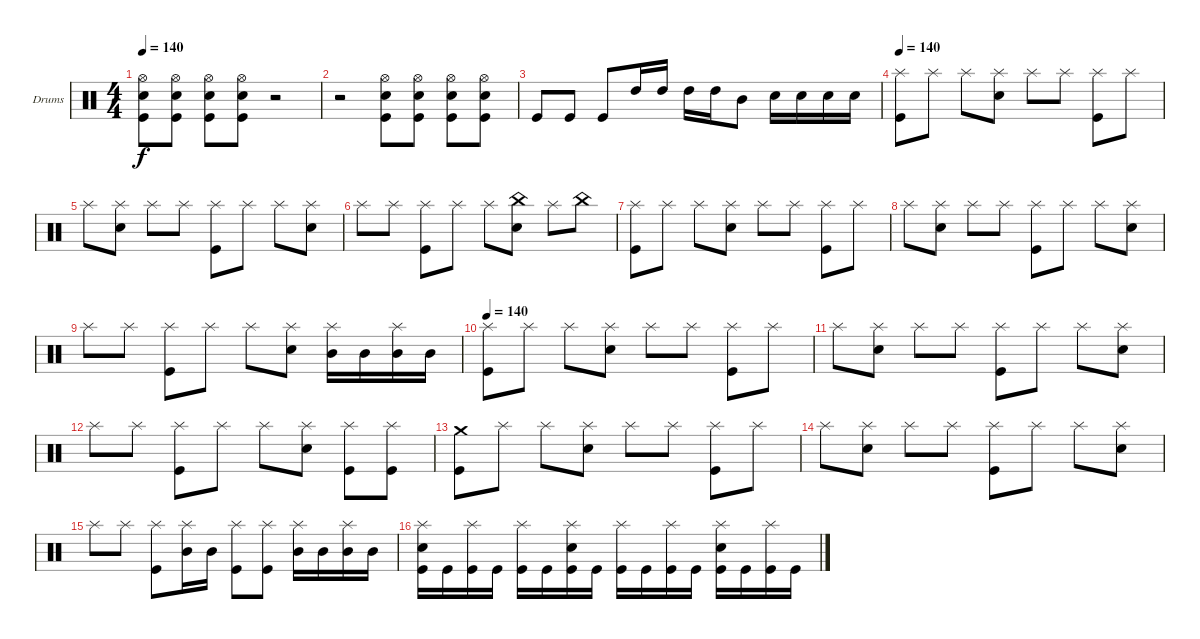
\bracketExtendMode groupsimilarinstruments
\firstSystemTrackNameOrientation horizontal
\otherSystemsTrackNameOrientation horizontal
\track ("Drumkit" "Drums") {instrument percussion}
\staff {score}
\articulation defaults
\ts (4 4)
\tempo 140
\clef neutral
\ks c
("Kick (hit)" "Snare (hit) 2" "Hi-Hat (open)").8{dy f} ("Kick (hit)" "Snare (hit) 2" "Hi-Hat (open)").8 ("Kick (hit)" "Snare (hit) 2" "Hi-Hat (open)").8 ("Kick (hit)" "Snare (hit) 2" "Hi-Hat (open)").8 r.2 |
r.2 ("Kick (hit)" "Snare (hit) 2" "Hi-Hat (open)").8 ("Kick (hit)" "Snare (hit) 2" "Hi-Hat (open)").8 ("Kick (hit)" "Snare (hit) 2" "Hi-Hat (open)").8 ("Kick (hit)" "Snare (hit) 2" "Hi-Hat (open)").8 |
"Kick (hit)".8 "Kick (hit)".8 "Kick (hit)".8 "High Tom (hit)".16 "High Tom (hit)".16 "High Tom (hit)".16 "High Tom (hit)".16 "Mid Tom (hit)".8 "Snare (hit) 2".16 "Snare (hit) 2".16 "Snare (hit) 2".16 "Snare (hit) 2".16 |
\tempo 140
("Kick (hit)" "Splash (hit)").8 "Splash (hit)".8 "Splash (hit)".8 ("Snare (hit) 2" "Splash (hit)").8 "Splash (hit)".8 "Splash (hit)".8 ("Kick (hit)" "Splash (hit)").8 "Splash (hit)".8 |
"Splash (hit)".8 ("Snare (hit) 2" "Splash (hit)").8 "Splash (hit)".8 "Splash (hit)".8 ("Kick (hit)" "Splash (hit)").8 "Splash (hit)".8 "Splash (hit)".8 ("Snare (hit) 2" "Splash (hit)").8 |
"Splash (hit)".8 "Splash (hit)".8 ("Kick (hit)" "Splash (hit)").8 "Splash (hit)".8 "Splash (hit)".8 ("Snare (hit) 2" "China (hit)").8 "Splash (hit)".8 "China (hit)".8 |
("Kick (hit)" "Splash (hit)").8 "Splash (hit)".8 "Splash (hit)".8 ("Snare (hit) 2" "Splash (hit)").8 "Splash (hit)".8 "Splash (hit)".8 ("Kick (hit)" "Splash (hit)").8 "Splash (hit)".8 |
"Splash (hit)".8 ("Snare (hit) 2" "Splash (hit)").8 "Splash (hit)".8 "Splash (hit)".8 ("Kick (hit)" "Splash (hit)").8 "Splash (hit)".8 "Splash (hit)".8 ("Snare (hit) 2" "Splash (hit)").8 |
"Splash (hit)".8 "Splash (hit)".8 ("Kick (hit)" "Splash (hit)").8 "Splash (hit)".8 "Splash (hit)".8 ("Snare (hit) 2" "Splash (hit)").8 ("Mid Tom (hit)" "Splash (hit)").16 "Mid Tom (hit)".16 ("Mid Tom (hit)" "Splash (hit)").16 "Mid Tom (hit)".16 |
\tempo 140
("Kick (hit)" "Splash (hit)").8 "Splash (hit)".8 "Splash (hit)".8 ("Snare (hit) 2" "Splash (hit)").8 "Splash (hit)".8 "Splash (hit)".8 ("Kick (hit)" "Splash (hit)").8 "Splash (hit)".8 |
"Splash (hit)".8 ("Snare (hit) 2" "Splash (hit)").8 "Splash (hit)".8 "Splash (hit)".8 ("Kick (hit)" "Splash (hit)").8 "Splash (hit)".8 "Splash (hit)".8 ("Snare (hit) 2" "Splash (hit)").8 |
"Splash (hit)".8 "Splash (hit)".8 ("Kick (hit)" "Splash (hit)").8 "Splash (hit)".8 "Splash (hit)".8 ("Snare (hit) 2" "Splash (hit)").8 ("Kick (hit)" "Splash (hit)").8 ("Kick (hit)" "Splash (hit)").8 |
("Kick (hit)" "Crash medium (hit)").8 "Splash (hit)".8 "Splash (hit)".8 ("Snare (hit) 2" "Splash (hit)").8 "Splash (hit)".8 "Splash (hit)".8 ("Kick (hit)" "Splash (hit)").8 "Splash (hit)".8 |
"Splash (hit)".8 ("Snare (hit) 2" "Splash (hit)").8 "Splash (hit)".8 "Splash (hit)".8 ("Kick (hit)" "Splash (hit)").8 "Splash (hit)".8 "Splash (hit)".8 ("Snare (hit) 2" "Splash (hit)").8 |
"Splash (hit)".8 "Splash (hit)".8 ("Kick (hit)" "Splash (hit)").8 ("Mid Tom (hit)" "Splash (hit)").16 "Mid Tom (hit)".16 ("Kick (hit)" "Splash (hit)").8 ("Kick (hit)" "Splash (hit)").8 ("Mid Tom (hit)" "Splash (hit)").16 "Mid Tom (hit)".16 ("Mid Tom (hit)" "Splash (hit)").16 "Mid Tom (hit)".16 |
("Kick (hit)" "Snare (hit) 2" "Splash (hit)").16 "Kick (hit)".16 ("Kick (hit)" "Splash (hit)").16 "Kick (hit)".16 ("Kick (hit)" "Splash (hit)").16 "Kick (hit)".16 ("Kick (hit)" "Snare (hit) 2" "Splash (hit)").16 "Kick (hit)".16 ("Kick (hit)" "Splash (hit)").16 "Kick (hit)".16 ("Kick (hit)" "Splash (hit)").16 "Kick (hit)".16 ("Kick (hit)" "Snare (hit) 2" "Splash (hit)").16 "Kick (hit)".16 ("Kick (hit)" "Splash (hit)").16 "Kick (hit)".16
